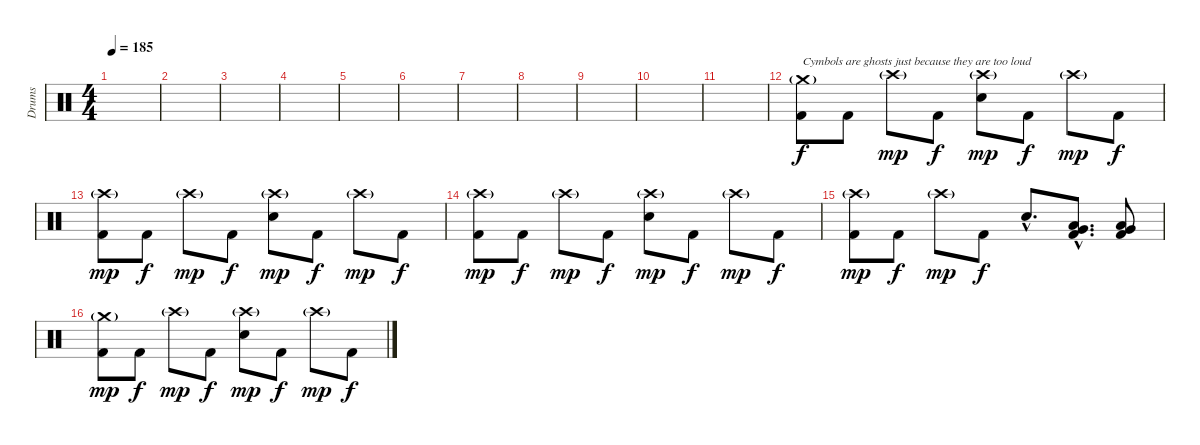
\track ("Drums" "Drums") {instrument percussion}
\staff {score}
\articulation defaults
\ts (4 4)
\tempo 185
\clef neutral
\ks c
|
|
|
|
|
|
|
|
|
|
|
("Crash medium (hit)"{g} "Kick (hit) 2").8{txt "Cymbols are ghosts just because they are too loud"} "Kick (hit) 2".8{dy f} "Crash high (hit)"{g}.8{dy mp} "Kick (hit) 2".8{dy f} ("Crash high (hit)"{g} "Snare (hit) 2").8{dy mp} "Kick (hit) 2".8{dy f} "Crash high (hit)"{g}.8{dy mp} "Kick (hit) 2".8{dy f} |
("Crash high (hit)"{g} "Kick (hit) 2").8{dy mp} "Kick (hit) 2".8{dy f} "Crash high (hit)"{g}.8{dy mp} "Kick (hit) 2".8{dy f} ("Crash high (hit)"{g} "Snare (hit) 2").8{dy mp} "Kick (hit) 2".8{dy f} "Crash high (hit)"{g}.8{dy mp} "Kick (hit) 2".8{dy f} |
("Crash high (hit)"{g} "Kick (hit) 2").8{dy mp} "Kick (hit) 2".8{dy f} "Crash high (hit)"{g}.8{dy mp} "Kick (hit) 2".8{dy f} ("Crash high (hit)"{g} "Snare (hit) 2").8{dy mp} "Kick (hit) 2".8{dy f} "Crash high (hit)"{g}.8{dy mp} "Kick (hit) 2".8{dy f} |
("Crash high (hit)"{g} "Kick (hit) 2").8{dy mp} "Kick (hit) 2".8{dy f} "Crash high (hit)"{g}.8{dy mp} "Kick (hit) 2".8{dy f} "Snare (hit) 2"{hac}.8{d} ("Low Tom (hit)"{hac} "Very Low Tom (hit)"{hac} "Kick (hit) 2"{hac}).8{d} ("Low Tom (hit)" "Very Low Tom (hit)" "Kick (hit) 2").8 |
("Crash medium (hit)"{g} "Kick (hit) 2").8{dy mp} "Kick (hit) 2".8{dy f} "Crash high (hit)"{g}.8{dy mp} "Kick (hit) 2".8{dy f} ("Crash high (hit)"{g} "Snare (hit) 2").8{dy mp} "Kick (hit) 2".8{dy f} "Crash high (hit)"{g}.8{dy mp} "Kick (hit) 2".8{dy f}
